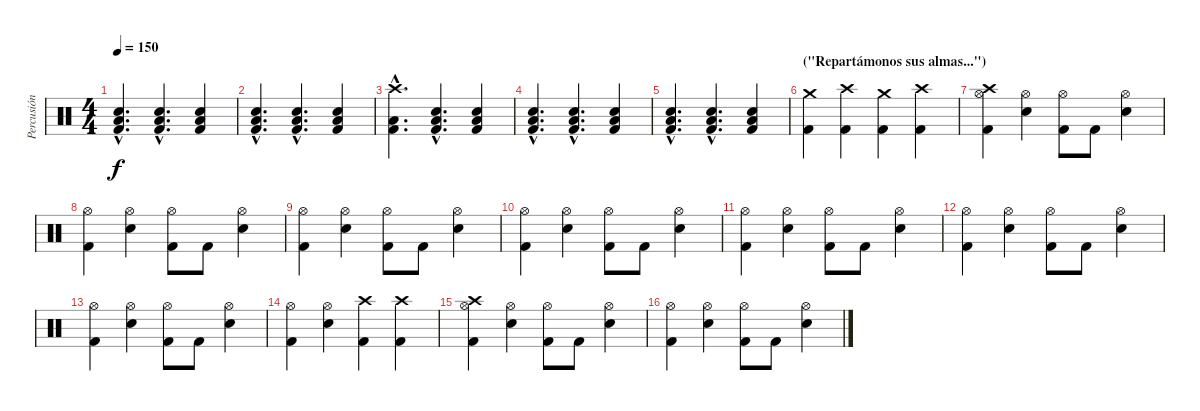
\track ("Percusión" "Percusión") {instrument percussion}
\staff {score}
\articulation defaults
\ts (4 4)
\tempo 150
\clef neutral
\ks c
("Snare (hit) 2"{hac} "Low Floor Tom (hit)"{hac} "Kick (hit) 2"{hac}).4{d dy f} ("Snare (hit) 2"{hac} "Low Floor Tom (hit)"{hac} "Kick (hit) 2"{hac}).4{d} ("Snare (hit) 2" "Low Floor Tom (hit)" "Kick (hit) 2").4 |
("Snare (hit) 2"{hac} "Low Floor Tom (hit)"{hac} "Kick (hit) 2"{hac}).4{d} ("Snare (hit) 2"{hac} "Low Floor Tom (hit)"{hac} "Kick (hit) 2"{hac}).4{d} ("Snare (hit) 2" "Low Floor Tom (hit)" "Kick (hit) 2").4 |
("Crash high (hit)"{hac} "Low Floor Tom (hit)"{hac} "Kick (hit) 2"{hac}).4{d} ("Snare (hit) 2"{hac} "Low Floor Tom (hit)"{hac} "Kick (hit) 2"{hac}).4{d} ("Snare (hit) 2" "Low Floor Tom (hit)" "Kick (hit) 2").4 |
("Snare (hit) 2"{hac} "Low Floor Tom (hit)"{hac} "Kick (hit) 2"{hac}).4{d} ("Snare (hit) 2"{hac} "Low Floor Tom (hit)"{hac} "Kick (hit) 2"{hac}).4{d} ("Snare (hit) 2" "Low Floor Tom (hit)" "Kick (hit) 2").4 |
("Snare (hit) 2"{hac} "Low Floor Tom (hit)"{hac} "Kick (hit) 2"{hac}).4{d} ("Snare (hit) 2"{hac} "Low Floor Tom (hit)"{hac} "Kick (hit) 2"{hac}).4{d} ("Snare (hit) 2" "Low Floor Tom (hit)" "Kick (hit) 2").4 |
\section ("" "(\"Repartámonos sus almas...\")")
("Crash medium (hit)" "Kick (hit) 2").4 ("Crash high (hit)" "Kick (hit) 2").4 ("Crash medium (hit)" "Kick (hit) 2").4 ("Crash high (hit)" "Kick (hit) 2").4 |
("Crash high (hit)" "Hi-Hat (open)" "Kick (hit) 2").4 ("Hi-Hat (open)" "Snare (hit) 2").4 ("Hi-Hat (open)" "Kick (hit) 2").8 "Kick (hit) 2".8 ("Hi-Hat (open)" "Snare (hit) 2").4 |
("Hi-Hat (open)" "Kick (hit) 2").4 ("Hi-Hat (open)" "Snare (hit) 2").4 ("Hi-Hat (open)" "Kick (hit) 2").8 "Kick (hit) 2".8 ("Hi-Hat (open)" "Snare (hit) 2").4 |
("Hi-Hat (open)" "Kick (hit) 2").4 ("Hi-Hat (open)" "Snare (hit) 2").4 ("Hi-Hat (open)" "Kick (hit) 2").8 "Kick (hit) 2".8 ("Hi-Hat (open)" "Snare (hit) 2").4 |
("Hi-Hat (open)" "Kick (hit) 2").4 ("Hi-Hat (open)" "Snare (hit) 2").4 ("Hi-Hat (open)" "Kick (hit) 2").8 "Kick (hit) 2".8 ("Hi-Hat (open)" "Snare (hit) 2").4 |
("Hi-Hat (open)" "Kick (hit) 2").4 ("Hi-Hat (open)" "Snare (hit) 2").4 ("Hi-Hat (open)" "Kick (hit) 2").8 "Kick (hit) 2".8 ("Hi-Hat (open)" "Snare (hit) 2").4 |
("Hi-Hat (open)" "Kick (hit) 2").4 ("Hi-Hat (open)" "Snare (hit) 2").4 ("Hi-Hat (open)" "Kick (hit) 2").8 "Kick (hit) 2".8 ("Hi-Hat (open)" "Snare (hit) 2").4 |
("Hi-Hat (open)" "Kick (hit) 2").4 ("Hi-Hat (open)" "Snare (hit) 2").4 ("Hi-Hat (open)" "Kick (hit) 2").8 "Kick (hit) 2".8 ("Hi-Hat (open)" "Snare (hit) 2").4 |
("Hi-Hat (open)" "Kick (hit) 2").4 ("Hi-Hat (open)" "Snare (hit) 2").4 ("Crash high (hit)" "Kick (hit) 2").4 ("Crash high (hit)" "Kick (hit) 2").4 |
("Crash high (hit)" "Hi-Hat (open)" "Kick (hit) 2").4 ("Hi-Hat (open)" "Snare (hit) 2").4 ("Hi-Hat (open)" "Kick (hit) 2").8 "Kick (hit) 2".8 ("Hi-Hat (open)" "Snare (hit) 2").4 |
("Hi-Hat (open)" "Kick (hit) 2").4 ("Hi-Hat (open)" "Snare (hit) 2").4 ("Hi-Hat (open)" "Kick (hit) 2").8 "Kick (hit) 2".8 ("Hi-Hat (open)" "Snare (hit) 2").4
